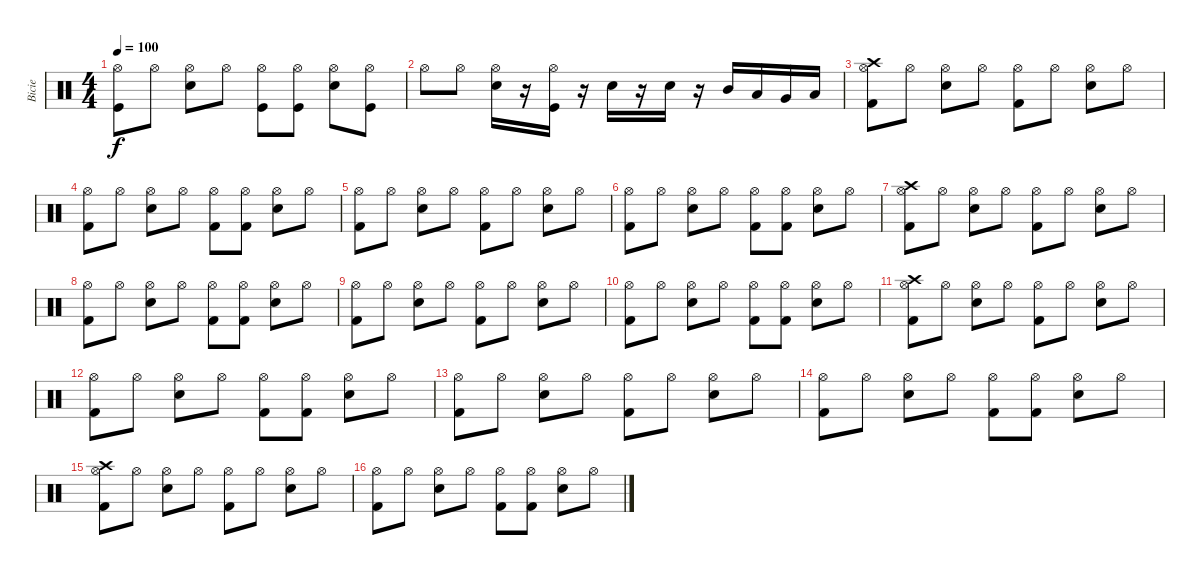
\track ("Bicie" "Bicie") {instrument percussion}
\staff {score}
\articulation defaults
\ts (4 4)
\tempo 100
\clef neutral
\ks c
("Hi-Hat (open)" "Kick (hit)").8{dy f} "Hi-Hat (open)".8 ("Hi-Hat (open)" "Snare (hit) 2").8 "Hi-Hat (open)".8 ("Hi-Hat (open)" "Kick (hit)").8 ("Hi-Hat (open)" "Kick (hit)").8 ("Hi-Hat (open)" "Snare (hit) 2").8 ("Hi-Hat (open)" "Kick (hit)").8 |
"Hi-Hat (open)".8 "Hi-Hat (open)".8 ("Hi-Hat (open)" "Snare (hit) 2").16 r.16 ("Hi-Hat (open)" "Kick (hit)").16 r.16 "Snare (hit) 2".16 r.16 "Snare (hit) 2".16 r.16 "Mid Tom (hit)".16 "Low Tom (hit)".16 "Very Low Tom (hit)".16 "Low Floor Tom (hit)".16 |
("Crash high (hit)" "Hi-Hat (open)" "Kick (hit) 2").8 "Hi-Hat (open)".8 ("Hi-Hat (open)" "Snare (hit) 2").8 "Hi-Hat (open)".8 ("Hi-Hat (open)" "Kick (hit) 2").8 "Hi-Hat (open)".8 ("Hi-Hat (open)" "Snare (hit) 2").8 "Hi-Hat (open)".8 |
("Hi-Hat (open)" "Kick (hit) 2").8 "Hi-Hat (open)".8 ("Hi-Hat (open)" "Snare (hit) 2").8 "Hi-Hat (open)".8 ("Hi-Hat (open)" "Kick (hit) 2").8 ("Hi-Hat (open)" "Kick (hit) 2").8 ("Hi-Hat (open)" "Snare (hit) 2").8 "Hi-Hat (open)".8 |
("Hi-Hat (open)" "Kick (hit) 2").8 "Hi-Hat (open)".8 ("Hi-Hat (open)" "Snare (hit) 2").8 "Hi-Hat (open)".8 ("Hi-Hat (open)" "Kick (hit) 2").8 "Hi-Hat (open)".8 ("Hi-Hat (open)" "Snare (hit) 2").8 "Hi-Hat (open)".8 |
("Hi-Hat (open)" "Kick (hit) 2").8 "Hi-Hat (open)".8 ("Hi-Hat (open)" "Snare (hit) 2").8 "Hi-Hat (open)".8 ("Hi-Hat (open)" "Kick (hit) 2").8 ("Hi-Hat (open)" "Kick (hit) 2").8 ("Hi-Hat (open)" "Snare (hit) 2").8 "Hi-Hat (open)".8 |
("Crash high (hit)" "Hi-Hat (open)" "Kick (hit) 2").8 "Hi-Hat (open)".8 ("Hi-Hat (open)" "Snare (hit) 2").8 "Hi-Hat (open)".8 ("Hi-Hat (open)" "Kick (hit) 2").8 "Hi-Hat (open)".8 ("Hi-Hat (open)" "Snare (hit) 2").8 "Hi-Hat (open)".8 |
("Hi-Hat (open)" "Kick (hit) 2").8 "Hi-Hat (open)".8 ("Hi-Hat (open)" "Snare (hit) 2").8 "Hi-Hat (open)".8 ("Hi-Hat (open)" "Kick (hit) 2").8 ("Hi-Hat (open)" "Kick (hit) 2").8 ("Hi-Hat (open)" "Snare (hit) 2").8 "Hi-Hat (open)".8 |
("Hi-Hat (open)" "Kick (hit) 2").8 "Hi-Hat (open)".8 ("Hi-Hat (open)" "Snare (hit) 2").8 "Hi-Hat (open)".8 ("Hi-Hat (open)" "Kick (hit) 2").8 "Hi-Hat (open)".8 ("Hi-Hat (open)" "Snare (hit) 2").8 "Hi-Hat (open)".8 |
("Hi-Hat (open)" "Kick (hit) 2").8 "Hi-Hat (open)".8 ("Hi-Hat (open)" "Snare (hit) 2").8 "Hi-Hat (open)".8 ("Hi-Hat (open)" "Kick (hit) 2").8 ("Hi-Hat (open)" "Kick (hit) 2").8 ("Hi-Hat (open)" "Snare (hit) 2").8 "Hi-Hat (open)".8 |
("Crash high (hit)" "Hi-Hat (open)" "Kick (hit) 2").8 "Hi-Hat (open)".8 ("Hi-Hat (open)" "Snare (hit) 2").8 "Hi-Hat (open)".8 ("Hi-Hat (open)" "Kick (hit) 2").8 "Hi-Hat (open)".8 ("Hi-Hat (open)" "Snare (hit) 2").8 "Hi-Hat (open)".8 |
("Hi-Hat (open)" "Kick (hit) 2").8 "Hi-Hat (open)".8 ("Hi-Hat (open)" "Snare (hit) 2").8 "Hi-Hat (open)".8 ("Hi-Hat (open)" "Kick (hit) 2").8 ("Hi-Hat (open)" "Kick (hit) 2").8 ("Hi-Hat (open)" "Snare (hit) 2").8 "Hi-Hat (open)".8 |
("Hi-Hat (open)" "Kick (hit) 2").8 "Hi-Hat (open)".8 ("Hi-Hat (open)" "Snare (hit) 2").8 "Hi-Hat (open)".8 ("Hi-Hat (open)" "Kick (hit) 2").8 "Hi-Hat (open)".8 ("Hi-Hat (open)" "Snare (hit) 2").8 "Hi-Hat (open)".8 |
("Hi-Hat (open)" "Kick (hit) 2").8 "Hi-Hat (open)".8 ("Hi-Hat (open)" "Snare (hit) 2").8 "Hi-Hat (open)".8 ("Hi-Hat (open)" "Kick (hit) 2").8 ("Hi-Hat (open)" "Kick (hit) 2").8 ("Hi-Hat (open)" "Snare (hit) 2").8 "Hi-Hat (open)".8 |
("Crash high (hit)" "Hi-Hat (open)" "Kick (hit) 2").8 "Hi-Hat (open)".8 ("Hi-Hat (open)" "Snare (hit) 2").8 "Hi-Hat (open)".8 ("Hi-Hat (open)" "Kick (hit) 2").8 "Hi-Hat (open)".8 ("Hi-Hat (open)" "Snare (hit) 2").8 "Hi-Hat (open)".8 |
("Hi-Hat (open)" "Kick (hit) 2").8 "Hi-Hat (open)".8 ("Hi-Hat (open)" "Snare (hit) 2").8 "Hi-Hat (open)".8 ("Hi-Hat (open)" "Kick (hit) 2").8 ("Hi-Hat (open)" "Kick (hit) 2").8 ("Hi-Hat (open)" "Snare (hit) 2").8 "Hi-Hat (open)".8
